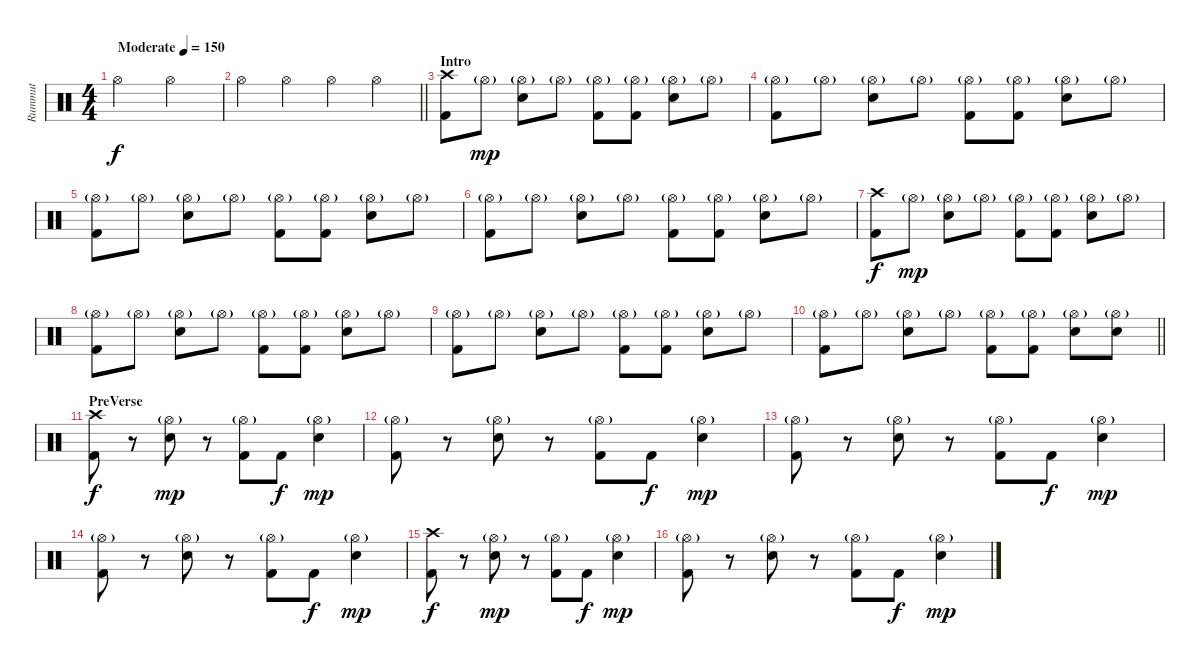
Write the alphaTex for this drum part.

\track ("Rummut" "Rummut") {instrument percussion bank 69}
\staff {score}
\articulation defaults
\ts (4 4)
\tempo (150 "Moderate")
\clef neutral
\ks c "Hi-Hat (open)".2{dy f} "Hi-Hat (open)".2
|
\barLineRight lightlight "Hi-Hat (open)".4 "Hi-Hat (open)".4 "Hi-Hat (open)".4 "Hi-Hat (open)".4
|
\section ("" "Intro")
("Crash high (hit)" "Kick (hit) 2").8 "Hi-Hat (open)"{g}.8{dy mp} ("Hi-Hat (open)"{g} "Snare (hit) 2").8 "Hi-Hat (open)"{g}.8 ("Hi-Hat (open)"{g} "Kick (hit) 2").8 ("Hi-Hat (open)"{g} "Kick (hit) 2").8 ("Hi-Hat (open)"{g} "Snare (hit) 2").8 "Hi-Hat (open)"{g}.8 |
("Hi-Hat (open)"{g} "Kick (hit) 2").8 "Hi-Hat (open)"{g}.8 ("Hi-Hat (open)"{g} "Snare (hit) 2").8 "Hi-Hat (open)"{g}.8 ("Hi-Hat (open)"{g} "Kick (hit) 2").8 ("Hi-Hat (open)"{g} "Kick (hit) 2").8 ("Hi-Hat (open)"{g} "Snare (hit) 2").8 "Hi-Hat (open)"{g}.8 |
("Hi-Hat (open)"{g} "Kick (hit) 2").8 "Hi-Hat (open)"{g}.8 ("Hi-Hat (open)"{g} "Snare (hit) 2").8 "Hi-Hat (open)"{g}.8 ("Hi-Hat (open)"{g} "Kick (hit) 2").8 ("Hi-Hat (open)"{g} "Kick (hit) 2").8 ("Hi-Hat (open)"{g} "Snare (hit) 2").8 "Hi-Hat (open)"{g}.8 |
("Hi-Hat (open)"{g} "Kick (hit) 2").8 "Hi-Hat (open)"{g}.8 ("Hi-Hat (open)"{g} "Snare (hit) 2").8 "Hi-Hat (open)"{g}.8 ("Hi-Hat (open)"{g} "Kick (hit) 2").8 ("Hi-Hat (open)"{g} "Kick (hit) 2").8 ("Hi-Hat (open)"{g} "Snare (hit) 2").8 "Hi-Hat (open)"{g}.8 |
("Crash high (hit)" "Kick (hit) 2").8{dy f} "Hi-Hat (open)"{g}.8{dy mp} ("Hi-Hat (open)"{g} "Snare (hit) 2").8 "Hi-Hat (open)"{g}.8 ("Hi-Hat (open)"{g} "Kick (hit) 2").8 ("Hi-Hat (open)"{g} "Kick (hit) 2").8 ("Hi-Hat (open)"{g} "Snare (hit) 2").8 "Hi-Hat (open)"{g}.8 |
("Hi-Hat (open)"{g} "Kick (hit) 2").8 "Hi-Hat (open)"{g}.8 ("Hi-Hat (open)"{g} "Snare (hit) 2").8 "Hi-Hat (open)"{g}.8 ("Hi-Hat (open)"{g} "Kick (hit) 2").8 ("Hi-Hat (open)"{g} "Kick (hit) 2").8 ("Hi-Hat (open)"{g} "Snare (hit) 2").8 "Hi-Hat (open)"{g}.8 |
("Hi-Hat (open)"{g} "Kick (hit) 2").8 "Hi-Hat (open)"{g}.8 ("Hi-Hat (open)"{g} "Snare (hit) 2").8 "Hi-Hat (open)"{g}.8 ("Hi-Hat (open)"{g} "Kick (hit) 2").8 ("Hi-Hat (open)"{g} "Kick (hit) 2").8 ("Hi-Hat (open)"{g} "Snare (hit) 2").8 "Hi-Hat (open)"{g}.8 |
\barLineRight lightlight
("Hi-Hat (open)"{g} "Kick (hit) 2").8 "Hi-Hat (open)"{g}.8 ("Hi-Hat (open)"{g} "Snare (hit) 2").8 "Hi-Hat (open)"{g}.8 ("Hi-Hat (open)"{g} "Kick (hit) 2").8 ("Hi-Hat (open)"{g} "Kick (hit) 2").8 ("Hi-Hat (open)"{g} "Snare (hit) 2").8 ("Hi-Hat (open)"{g} "Snare (hit) 2").8 |
\section ("" "PreVerse")
("Crash high (hit)" "Kick (hit) 2").8{dy f} r.8 ("Hi-Hat (open)"{g} "Snare (hit) 2").8{dy mp} r.8 ("Hi-Hat (open)"{g} "Kick (hit) 2").8 "Kick (hit) 2".8{dy f} ("Hi-Hat (open)"{g} "Snare (hit) 2").4{dy mp} |
("Hi-Hat (open)"{g} "Kick (hit) 2").8 r.8 ("Hi-Hat (open)"{g} "Snare (hit) 2").8 r.8 ("Hi-Hat (open)"{g} "Kick (hit) 2").8 "Kick (hit) 2".8{dy f} ("Hi-Hat (open)"{g} "Snare (hit) 2").4{dy mp} |
("Hi-Hat (open)"{g} "Kick (hit) 2").8 r.8 ("Hi-Hat (open)"{g} "Snare (hit) 2").8 r.8 ("Hi-Hat (open)"{g} "Kick (hit) 2").8 "Kick (hit) 2".8{dy f} ("Hi-Hat (open)"{g} "Snare (hit) 2").4{dy mp} |
("Hi-Hat (open)"{g} "Kick (hit) 2").8 r.8 ("Hi-Hat (open)"{g} "Snare (hit) 2").8 r.8 ("Hi-Hat (open)"{g} "Kick (hit) 2").8 "Kick (hit) 2".8{dy f} ("Hi-Hat (open)"{g} "Snare (hit) 2").4{dy mp} |
("Crash high (hit)" "Kick (hit) 2").8{dy f} r.8 ("Hi-Hat (open)"{g} "Snare (hit) 2").8{dy mp} r.8 ("Hi-Hat (open)"{g} "Kick (hit) 2").8 "Kick (hit) 2".8{dy f} ("Hi-Hat (open)"{g} "Snare (hit) 2").4{dy mp} |
("Hi-Hat (open)"{g} "Kick (hit) 2").8 r.8 ("Hi-Hat (open)"{g} "Snare (hit) 2").8 r.8 ("Hi-Hat (open)"{g} "Kick (hit) 2").8 "Kick (hit) 2".8{dy f} ("Hi-Hat (open)"{g} "Snare (hit) 2").4{dy mp}
